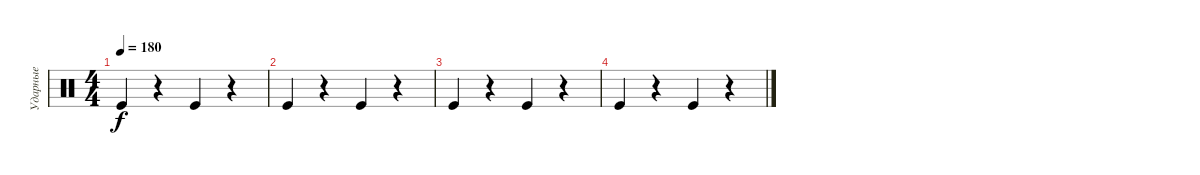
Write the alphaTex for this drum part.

\track ("Ударные" "Ударные") {instrument percussion}
\staff {score}
\articulation defaults
\ts (4 4)
\tempo 180
\clef neutral
\ks c "Kick (hit)".4{dy f}
r.4 "Kick (hit)".4 r.4 |
"Kick (hit)".4 r.4 "Kick (hit)".4 r.4 |
"Kick (hit)".4 r.4 "Kick (hit)".4 r.4 |
"Kick (hit)".4 r.4 "Kick (hit)".4 r.4
